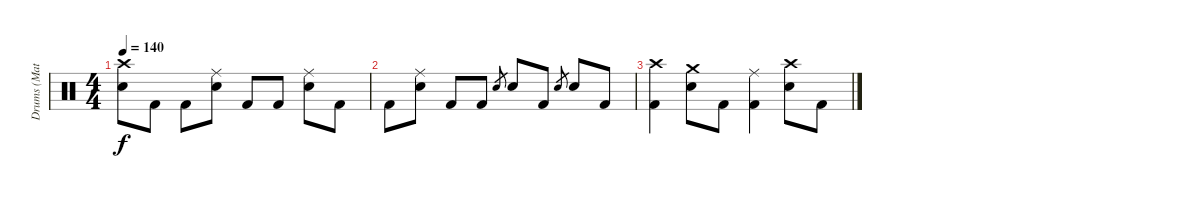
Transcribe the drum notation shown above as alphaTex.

\track ("Drums (Matt)" "Drums (Mat") {instrument percussion}
\staff {score}
\articulation defaults
\ts (4 4)
\tempo 140
\clef neutral
\ks c
("Crash high (hit)" "Snare (hit) 2").8{dy f} "Kick (hit) 2".8 "Kick (hit) 2".8 ("Ride (middle)" "Snare (hit) 2").8 "Kick (hit) 2".8 "Kick (hit) 2".8 ("Ride (middle)" "Snare (hit) 2").8 "Kick (hit) 2".8 |
"Kick (hit) 2".8{volume 1} ("Ride (middle)" "Snare (hit) 2").8 "Kick (hit) 2".8 "Kick (hit) 2".8 "Snare (hit) 2".8{gr} "Snare (hit) 2".8 "Kick (hit) 2".8 "Snare (hit) 2".8{gr} "Snare (hit) 2".8 "Kick (hit) 2".8 |
("Crash high (hit)" "Kick (hit) 2").4 ("Crash medium (hit)" "Snare (hit) 2").8 "Kick (hit) 2".8 ("Ride (middle)" "Kick (hit) 2").4 ("Crash high (hit)" "Snare (hit) 2").8 "Kick (hit) 2".8
